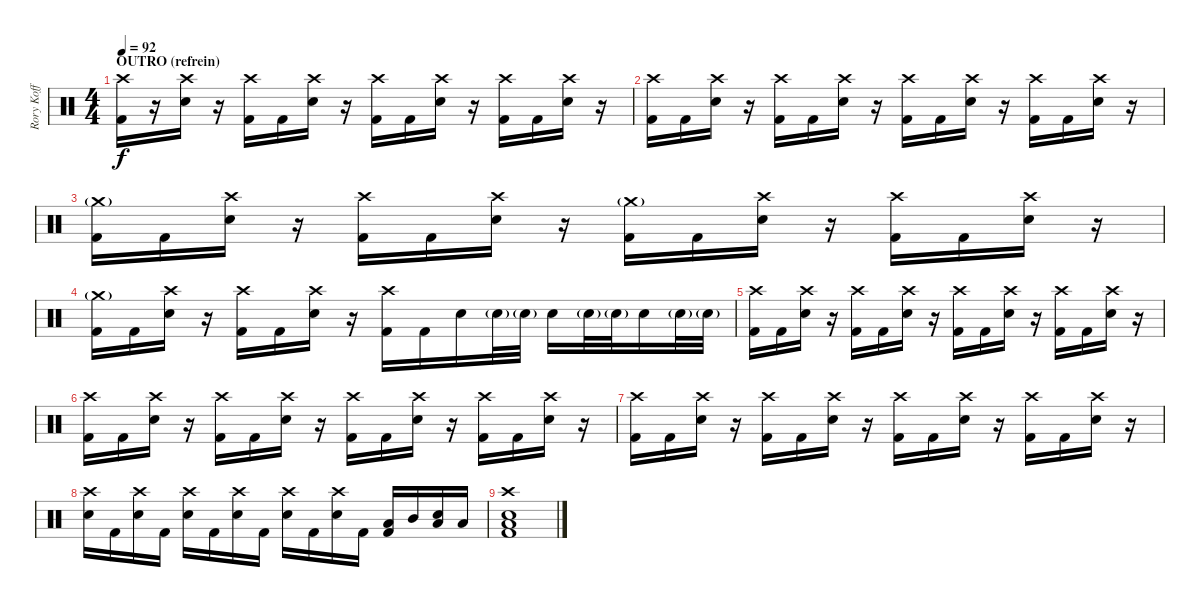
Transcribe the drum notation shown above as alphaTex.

\track ("Rory Koff" "Rory Koff") {instrument percussion}
\staff {score}
\articulation defaults
\ts (4 4)
\section ("" "OUTRO (refrein)")
\tempo 92
\clef neutral
\ks c
("Crash high (hit)" "Kick (hit) 2").16{dy f} r.16 ("Crash high (hit)" "Snare (hit) 2").16 r.16 ("Crash high (hit)" "Kick (hit) 2").16 "Kick (hit) 2".16 ("Crash high (hit)" "Snare (hit) 2").16 r.16 ("Crash high (hit)" "Kick (hit) 2").16 "Kick (hit) 2".16 ("Crash high (hit)" "Snare (hit) 2").16 r.16 ("Crash high (hit)" "Kick (hit) 2").16 "Kick (hit) 2".16 ("Crash high (hit)" "Snare (hit) 2").16 r.16 |
("Crash high (hit)" "Kick (hit) 2").16 "Kick (hit) 2".16 ("Crash high (hit)" "Snare (hit) 2").16 r.16 ("Crash high (hit)" "Kick (hit) 2").16 "Kick (hit) 2".16 ("Crash high (hit)" "Snare (hit) 2").16 r.16 ("Crash high (hit)" "Kick (hit) 2").16 "Kick (hit) 2".16 ("Crash high (hit)" "Snare (hit) 2").16 r.16 ("Crash high (hit)" "Kick (hit) 2").16 "Kick (hit) 2".16 ("Crash high (hit)" "Snare (hit) 2").16 r.16 |
("Crash medium (hit)"{g} "Kick (hit) 2").16 "Kick (hit) 2".16 ("Crash high (hit)" "Snare (hit) 2").16 r.16 ("Crash high (hit)" "Kick (hit) 2").16 "Kick (hit) 2".16 ("Crash high (hit)" "Snare (hit) 2").16 r.16 ("Crash medium (hit)"{g} "Kick (hit) 2").16 "Kick (hit) 2".16 ("Crash high (hit)" "Snare (hit) 2").16 r.16 ("Crash high (hit)" "Kick (hit) 2").16 "Kick (hit) 2".16 ("Crash high (hit)" "Snare (hit) 2").16 r.16 |
("Crash medium (hit)"{g} "Kick (hit) 2").16 "Kick (hit) 2".16 ("Crash high (hit)" "Snare (hit) 2").16 r.16 ("Crash high (hit)" "Kick (hit) 2").16 "Kick (hit) 2".16 ("Crash high (hit)" "Snare (hit) 2").16 r.16 ("Crash high (hit)" "Kick (hit) 2").16 "Kick (hit) 2".16 "Snare (hit) 2".16 "Snare (hit) 2"{g}.32 "Snare (hit) 2"{g}.32 "Snare (hit) 2".16 "Snare (hit) 2"{g}.32 "Snare (hit) 2"{g}.32 "Snare (hit) 2".16 "Snare (hit) 2"{g}.32 "Snare (hit) 2"{g}.32 |
("Crash high (hit)" "Kick (hit) 2").16 "Kick (hit) 2".16 ("Crash high (hit)" "Snare (hit) 2").16 r.16 ("Crash high (hit)" "Kick (hit) 2").16 "Kick (hit) 2".16 ("Crash high (hit)" "Snare (hit) 2").16 r.16 ("Crash high (hit)" "Kick (hit) 2").16 "Kick (hit) 2".16 ("Crash high (hit)" "Snare (hit) 2").16 r.16 ("Crash high (hit)" "Kick (hit) 2").16 "Kick (hit) 2".16 ("Crash high (hit)" "Snare (hit) 2").16 r.16 |
("Crash high (hit)" "Kick (hit) 2").16 "Kick (hit) 2".16 ("Crash high (hit)" "Snare (hit) 2").16 r.16 ("Crash high (hit)" "Kick (hit) 2").16 "Kick (hit) 2".16 ("Crash high (hit)" "Snare (hit) 2").16 r.16 ("Crash high (hit)" "Kick (hit) 2").16 "Kick (hit) 2".16 ("Crash high (hit)" "Snare (hit) 2").16 r.16 ("Crash high (hit)" "Kick (hit) 2").16 "Kick (hit) 2".16 ("Crash high (hit)" "Snare (hit) 2").16 r.16 |
("Crash high (hit)" "Kick (hit) 2").16 "Kick (hit) 2".16 ("Crash high (hit)" "Snare (hit) 2").16 r.16 ("Crash high (hit)" "Kick (hit) 2").16 "Kick (hit) 2".16 ("Crash high (hit)" "Snare (hit) 2").16 r.16 ("Crash high (hit)" "Kick (hit) 2").16 "Kick (hit) 2".16 ("Crash high (hit)" "Snare (hit) 2").16 r.16 ("Crash high (hit)" "Kick (hit) 2").16 "Kick (hit) 2".16 ("Crash high (hit)" "Snare (hit) 2").16 r.16 |
("Crash high (hit)" "Snare (hit) 2").16 "Kick (hit) 2".16 ("Crash high (hit)" "Snare (hit) 2").16 "Kick (hit) 2".16 ("Crash high (hit)" "Snare (hit) 2").16 "Kick (hit) 2".16 ("Crash high (hit)" "Snare (hit) 2").16 "Kick (hit) 2".16 ("Crash high (hit)" "Snare (hit) 2").16 "Kick (hit) 2".16 ("Crash high (hit)" "Snare (hit) 2").16 "Kick (hit) 2".16 ("Low Tom (hit)" "Kick (hit) 2").16 "Mid Tom (hit)".16 ("Low Tom (hit)" "Snare (hit) 2").16 "Low Floor Tom (hit)".16 |
("Crash high (hit)" "Low Floor Tom (hit)" "Snare (hit) 2" "Kick (hit) 2").1
